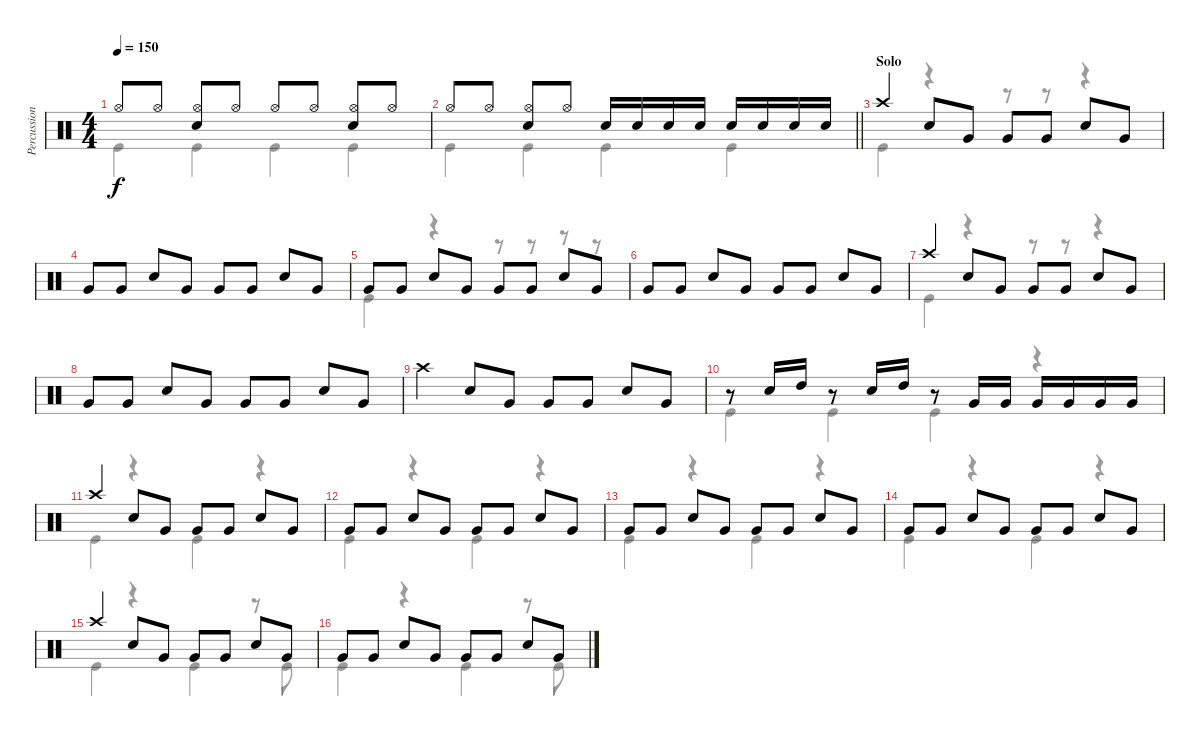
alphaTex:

\track ("Percussion" "Percussion") {instrument percussion}
\staff {score}
\articulation defaults
\voice
\ts (4 4)
\tempo 150
\clef neutral
\ks c "Hi-Hat (open)".8{dy f} "Hi-Hat (open)".8
("Hi-Hat (open)" "Snare (hit) 2").8 "Hi-Hat (open)".8 "Hi-Hat (open)".8 "Hi-Hat (open)".8 ("Hi-Hat (open)" "Snare (hit) 2").8 "Hi-Hat (open)".8 |
\barLineRight lightlight "Hi-Hat (open)".8 "Hi-Hat (open)".8
("Hi-Hat (open)" "Snare (hit) 2").8 "Hi-Hat (open)".8 "Snare (hit) 2".16 "Snare (hit) 2".16 "Snare (hit) 2".16 "Snare (hit) 2".16 "Snare (hit) 2".16 "Snare (hit) 2".16 "Snare (hit) 2".16 "Snare (hit) 2".16 |
\section ("" "Solo")
"Crash high (hit)".4 "Snare (hit) 2".8 "Very Low Tom (hit)".8 "Very Low Tom (hit)".8 "Very Low Tom (hit)".8 "Snare (hit) 2".8 "Very Low Tom (hit)".8 |
"Very Low Tom (hit)".8 "Very Low Tom (hit)".8 "Snare (hit) 2".8 "Very Low Tom (hit)".8 "Very Low Tom (hit)".8 "Very Low Tom (hit)".8 "Snare (hit) 2".8 "Very Low Tom (hit)".8 |
"Very Low Tom (hit)".8 "Very Low Tom (hit)".8 "Snare (hit) 2".8 "Very Low Tom (hit)".8 "Very Low Tom (hit)".8 "Very Low Tom (hit)".8 "Snare (hit) 2".8 "Very Low Tom (hit)".8 |
"Very Low Tom (hit)".8 "Very Low Tom (hit)".8 "Snare (hit) 2".8 "Very Low Tom (hit)".8 "Very Low Tom (hit)".8 "Very Low Tom (hit)".8 "Snare (hit) 2".8 "Very Low Tom (hit)".8 |
"Crash high (hit)".4 "Snare (hit) 2".8 "Very Low Tom (hit)".8 "Very Low Tom (hit)".8 "Very Low Tom (hit)".8 "Snare (hit) 2".8 "Very Low Tom (hit)".8 |
"Very Low Tom (hit)".8 "Very Low Tom (hit)".8 "Snare (hit) 2".8 "Very Low Tom (hit)".8 "Very Low Tom (hit)".8 "Very Low Tom (hit)".8 "Snare (hit) 2".8 "Very Low Tom (hit)".8 |
"Crash high (hit)".4 "Snare (hit) 2".8 "Very Low Tom (hit)".8 "Very Low Tom (hit)".8 "Very Low Tom (hit)".8 "Snare (hit) 2".8 "Very Low Tom (hit)".8 |
r.8 "Snare (hit) 2".16 "High Tom (hit)".16 r.8 "Snare (hit) 2".16 "High Tom (hit)".16 r.8 "Very Low Tom (hit)".16 "Very Low Tom (hit)".16 "Very Low Tom (hit)".16 "Very Low Tom (hit)".16 "Very Low Tom (hit)".16 "Very Low Tom (hit)".16 |
"Crash high (hit)".4 "Snare (hit) 2".8 "Very Low Tom (hit)".8 "Very Low Tom (hit)".8 "Very Low Tom (hit)".8 "Snare (hit) 2".8 "Very Low Tom (hit)".8 |
"Very Low Tom (hit)".8 "Very Low Tom (hit)".8 "Snare (hit) 2".8 "Very Low Tom (hit)".8 "Very Low Tom (hit)".8 "Very Low Tom (hit)".8 "Snare (hit) 2".8 "Very Low Tom (hit)".8 |
"Very Low Tom (hit)".8 "Very Low Tom (hit)".8 "Snare (hit) 2".8 "Very Low Tom (hit)".8 "Very Low Tom (hit)".8 "Very Low Tom (hit)".8 "Snare (hit) 2".8 "Very Low Tom (hit)".8 |
"Very Low Tom (hit)".8 "Very Low Tom (hit)".8 "Snare (hit) 2".8 "Very Low Tom (hit)".8 "Very Low Tom (hit)".8 "Very Low Tom (hit)".8 "Snare (hit) 2".8 "Very Low Tom (hit)".8 |
"Crash high (hit)".4 "Snare (hit) 2".8 "Very Low Tom (hit)".8 "Very Low Tom (hit)".8 "Very Low Tom (hit)".8 "Snare (hit) 2".8 "Very Low Tom (hit)".8 |
"Very Low Tom (hit)".8 "Very Low Tom (hit)".8 "Snare (hit) 2".8 "Very Low Tom (hit)".8 "Very Low Tom (hit)".8 "Very Low Tom (hit)".8 "Snare (hit) 2".8 "Very Low Tom (hit)".8
\voice
\clef neutral
\ottava regular
\simile none
\ks c "Kick (hit)".4{dy f} "Kick (hit)".4 "Kick (hit)".4 "Kick (hit)".4
|
\barLineRight lightlight "Kick (hit)".4 "Kick (hit)".4 "Kick (hit)".4 "Kick (hit)".4
|
"Kick (hit)".4 r.4 r.8 r.8 r.4 |
|
"Kick (hit)".4 r.4 r.8 r.8 r.8 r.8 |
|
"Kick (hit)".4 r.4 r.8 r.8 r.4 |
|
|
"Kick (hit)".4 "Kick (hit)".4 "Kick (hit)".4 r.4 |
"Kick (hit)".4 r.4 "Kick (hit)".4 r.4 |
"Kick (hit)".4 r.4 "Kick (hit)".4 r.4 |
"Kick (hit)".4 r.4 "Kick (hit)".4 r.4 |
"Kick (hit)".4 r.4 "Kick (hit)".4 r.4 |
"Kick (hit)".4 r.4 "Kick (hit)".4 r.8 "Kick (hit)".8 |
"Kick (hit)".4 r.4 "Kick (hit)".4 r.8 "Kick (hit)".8
